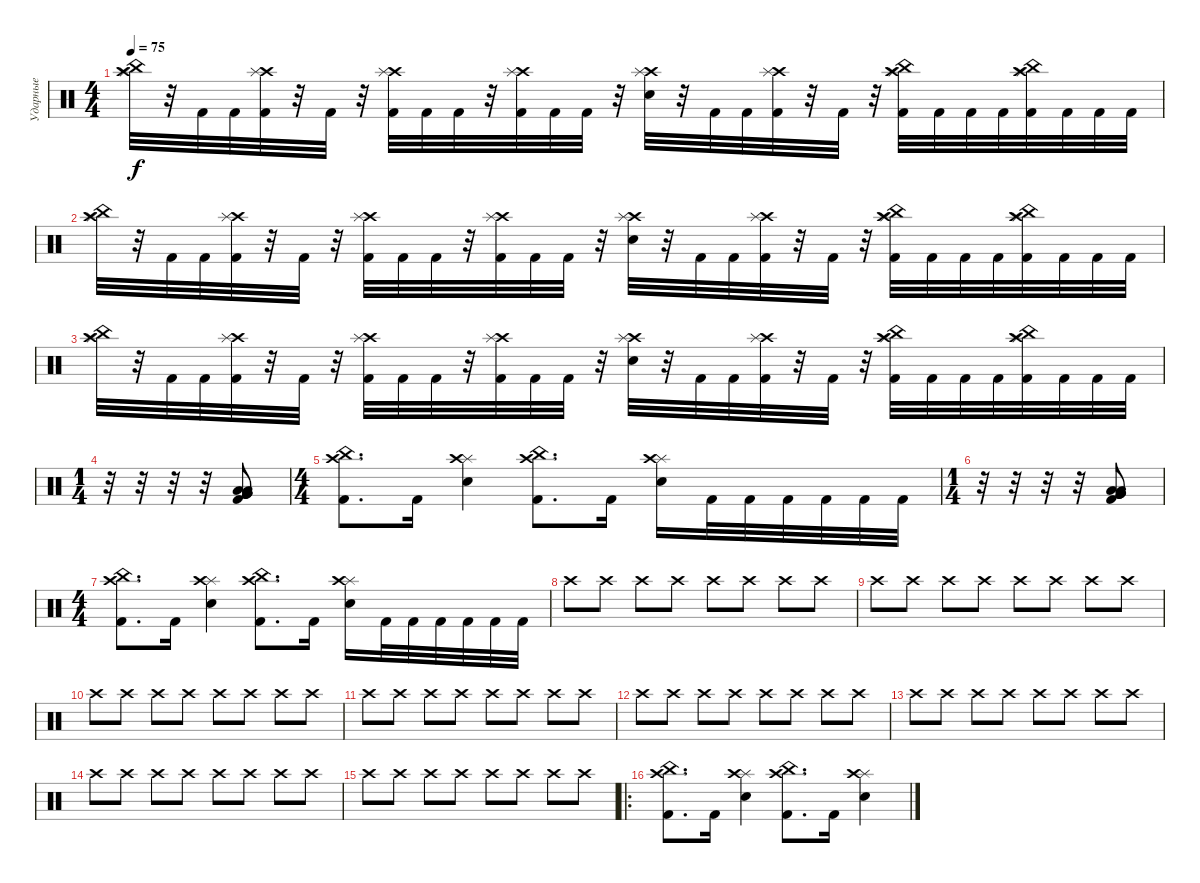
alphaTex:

\track ("Ударные" "Ударные") {instrument percussion}
\staff {score}
\articulation defaults
\ts (4 4)
\tempo 75
\clef neutral
\ks c
("Crash high (hit)" "Splash (hit)" "China (hit)").32{dy f} r.32 "Kick (hit) 2".32 "Kick (hit) 2".32 ("Crash high (hit)" "Splash (hit)" "Kick (hit) 2").32 r.32 "Kick (hit) 2".32 r.32 ("Crash high (hit)" "Splash (hit)" "Kick (hit) 2").32 "Kick (hit) 2".32 "Kick (hit) 2".32 r.32 ("Crash high (hit)" "Splash (hit)" "Kick (hit) 2").32 "Kick (hit) 2".32 "Kick (hit) 2".32 r.32 ("Crash high (hit)" "Splash (hit)" "Electric Snare (hit)").32 r.32 "Kick (hit) 2".32 "Kick (hit) 2".32 ("Crash high (hit)" "Splash (hit)" "Kick (hit) 2").32 r.32 "Kick (hit) 2".32 r.32 ("Crash high (hit)" "Splash (hit)" "China (hit)" "Kick (hit) 2").32 "Kick (hit) 2".32 "Kick (hit) 2".32 "Kick (hit) 2".32 ("Crash high (hit)" "Splash (hit)" "China (hit)" "Kick (hit) 2").32 "Kick (hit) 2".32 "Kick (hit) 2".32 "Kick (hit) 2".32 |
("Crash high (hit)" "Splash (hit)" "China (hit)").32 r.32 "Kick (hit) 2".32 "Kick (hit) 2".32 ("Crash high (hit)" "Splash (hit)" "Kick (hit) 2").32 r.32 "Kick (hit) 2".32 r.32 ("Crash high (hit)" "Splash (hit)" "Kick (hit) 2").32 "Kick (hit) 2".32 "Kick (hit) 2".32 r.32 ("Crash high (hit)" "Splash (hit)" "Kick (hit) 2").32 "Kick (hit) 2".32 "Kick (hit) 2".32 r.32 ("Crash high (hit)" "Splash (hit)" "Electric Snare (hit)").32 r.32 "Kick (hit) 2".32 "Kick (hit) 2".32 ("Crash high (hit)" "Splash (hit)" "Kick (hit) 2").32 r.32 "Kick (hit) 2".32 r.32 ("Crash high (hit)" "Splash (hit)" "China (hit)" "Kick (hit) 2").32 "Kick (hit) 2".32 "Kick (hit) 2".32 "Kick (hit) 2".32 ("Crash high (hit)" "Splash (hit)" "China (hit)" "Kick (hit) 2").32 "Kick (hit) 2".32 "Kick (hit) 2".32 "Kick (hit) 2".32 |
("Crash high (hit)" "Splash (hit)" "China (hit)").32 r.32 "Kick (hit) 2".32 "Kick (hit) 2".32 ("Crash high (hit)" "Splash (hit)" "Kick (hit) 2").32 r.32 "Kick (hit) 2".32 r.32 ("Crash high (hit)" "Splash (hit)" "Kick (hit) 2").32 "Kick (hit) 2".32 "Kick (hit) 2".32 r.32 ("Crash high (hit)" "Splash (hit)" "Kick (hit) 2").32 "Kick (hit) 2".32 "Kick (hit) 2".32 r.32 ("Crash high (hit)" "Splash (hit)" "Electric Snare (hit)").32 r.32 "Kick (hit) 2".32 "Kick (hit) 2".32 ("Crash high (hit)" "Splash (hit)" "Kick (hit) 2").32 r.32 "Kick (hit) 2".32 r.32 ("Crash high (hit)" "Splash (hit)" "China (hit)" "Kick (hit) 2").32 "Kick (hit) 2".32 "Kick (hit) 2".32 "Kick (hit) 2".32 ("Crash high (hit)" "Splash (hit)" "China (hit)" "Kick (hit) 2").32 "Kick (hit) 2".32 "Kick (hit) 2".32 "Kick (hit) 2".32 |
\ts (1 4)
r.32 r.32 r.32 r.32 ("Very Low Tom (hit)" "Low Tom (hit)" "Low Floor Tom (hit)" "Very Low Tom (hit)" "Kick (hit) 2" "Very Low Tom (hit)").8 |
\ts (4 4)
("Crash high (hit)" "China (hit)" "Kick (hit) 2").8{d} "Kick (hit) 2".16 ("Splash (hit)" "Crash high (hit)" "Electric Snare (hit)").4 ("China (hit)" "Crash high (hit)" "Kick (hit) 2").8{d} "Kick (hit) 2".16 ("Splash (hit)" "Crash high (hit)" "Electric Snare (hit)").16 "Kick (hit) 2".32 "Kick (hit) 2".32 "Kick (hit) 2".32 "Kick (hit) 2".32 "Kick (hit) 2".32 "Kick (hit) 2".32 |
\ts (1 4)
r.32 r.32 r.32 r.32 ("Very Low Tom (hit)" "Low Tom (hit)" "Low Floor Tom (hit)" "Very Low Tom (hit)" "Kick (hit) 2" "Very Low Tom (hit)").8 |
\ts (4 4)
("Crash high (hit)" "China (hit)" "Kick (hit) 2").8{d} "Kick (hit) 2".16 ("Splash (hit)" "Crash high (hit)" "Electric Snare (hit)").4 ("China (hit)" "Crash high (hit)" "Kick (hit) 2").8{d} "Kick (hit) 2".16 ("Splash (hit)" "Crash high (hit)" "Electric Snare (hit)").16 "Kick (hit) 2".32 "Kick (hit) 2".32 "Kick (hit) 2".32 "Kick (hit) 2".32 "Kick (hit) 2".32 "Kick (hit) 2".32 |
"Crash high (hit)".8 "Crash high (hit)".8 "Crash high (hit)".8 "Crash high (hit)".8 "Crash high (hit)".8 "Crash high (hit)".8 "Crash high (hit)".8 "Crash high (hit)".8 |
"Crash high (hit)".8 "Crash high (hit)".8 "Crash high (hit)".8 "Crash high (hit)".8 "Crash high (hit)".8 "Crash high (hit)".8 "Crash high (hit)".8 "Crash high (hit)".8 |
"Crash high (hit)".8 "Crash high (hit)".8 "Crash high (hit)".8 "Crash high (hit)".8 "Crash high (hit)".8 "Crash high (hit)".8 "Crash high (hit)".8 "Crash high (hit)".8 |
"Crash high (hit)".8 "Crash high (hit)".8 "Crash high (hit)".8 "Crash high (hit)".8 "Crash high (hit)".8 "Crash high (hit)".8 "Crash high (hit)".8 "Crash high (hit)".8 |
"Crash high (hit)".8 "Crash high (hit)".8 "Crash high (hit)".8 "Crash high (hit)".8 "Crash high (hit)".8 "Crash high (hit)".8 "Crash high (hit)".8 "Crash high (hit)".8 |
"Crash high (hit)".8 "Crash high (hit)".8 "Crash high (hit)".8 "Crash high (hit)".8 "Crash high (hit)".8 "Crash high (hit)".8 "Crash high (hit)".8 "Crash high (hit)".8 |
"Crash high (hit)".8 "Crash high (hit)".8 "Crash high (hit)".8 "Crash high (hit)".8 "Crash high (hit)".8 "Crash high (hit)".8 "Crash high (hit)".8 "Crash high (hit)".8 |
"Crash high (hit)".8 "Crash high (hit)".8 "Crash high (hit)".8 "Crash high (hit)".8 "Crash high (hit)".8 "Crash high (hit)".8 "Crash high (hit)".8 "Crash high (hit)".8 |
\ro
("Crash high (hit)" "China (hit)" "Kick (hit) 2").8{d} "Kick (hit) 2".16 ("Splash (hit)" "Crash high (hit)" "Electric Snare (hit)").4 ("China (hit)" "Crash high (hit)" "Kick (hit) 2").8{d} "Kick (hit) 2".16 ("Splash (hit)" "Crash high (hit)" "Electric Snare (hit)").4
